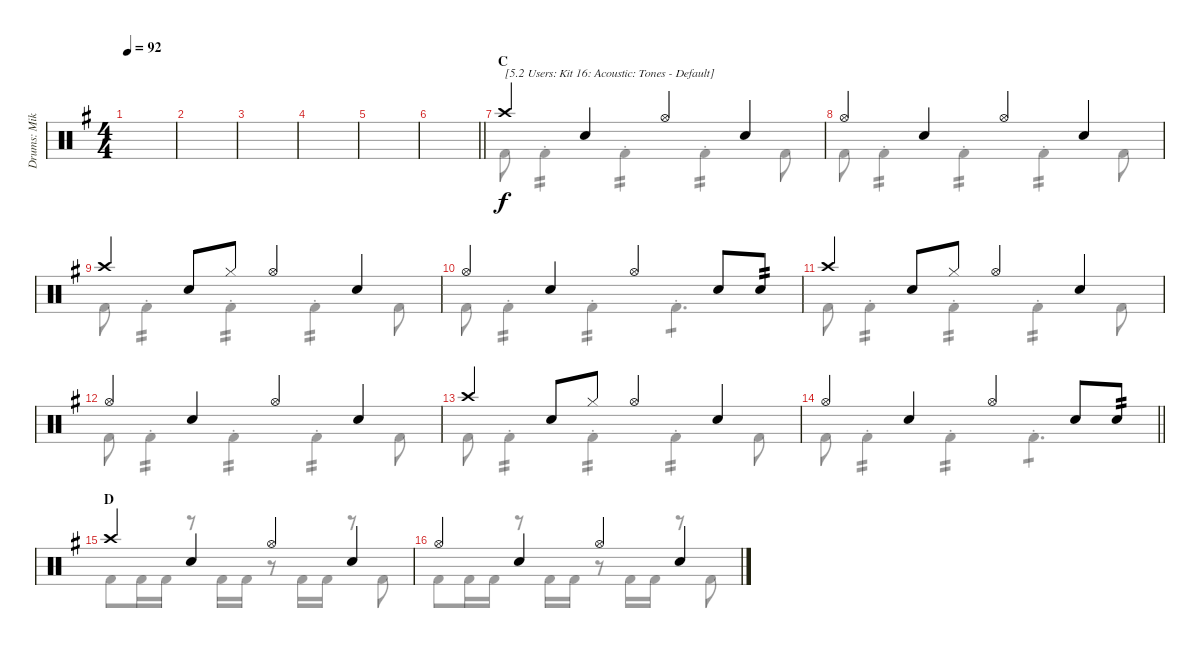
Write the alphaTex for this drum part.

\track ("Drums: Mike" "Drums: Mik") {instrument percussion}
\staff {score}
\articulation defaults
\voice
\ts (4 4)
\tempo 92
\clef neutral
\ks g
|
|
|
|
|
\barLineRight lightlight
|
\section ("" "C")
"Crash high (hit)".4{txt "[5.2 Users: Kit 16: Acoustic: Tones - Default]"} "Snare (hit) 2".4 "Hi-Hat (open)".4{beam merge} "Snare (hit) 2".4 |
"Hi-Hat (open)".4 "Snare (hit) 2".4 "Hi-Hat (open)".4{beam merge} "Snare (hit) 2".4 |
"Crash high (hit)".4 "Snare (hit) 2".8 "Hi-Hat (closed)".8 "Hi-Hat (open)".4{beam merge} "Snare (hit) 2".4 |
"Hi-Hat (open)".4 "Snare (hit) 2".4 "Hi-Hat (open)".4{beam merge} "Snare (hit) 2".8 "Electric Snare (hit)".8{tp 2} |
"Crash high (hit)".4 "Snare (hit) 2".8 "Hi-Hat (closed)".8 "Hi-Hat (open)".4{beam merge} "Snare (hit) 2".4 |
"Hi-Hat (open)".4 "Snare (hit) 2".4 "Hi-Hat (open)".4{beam merge} "Snare (hit) 2".4 |
"Crash high (hit)".4 "Snare (hit) 2".8 "Hi-Hat (closed)".8 "Hi-Hat (open)".4{beam merge} "Snare (hit) 2".4 |
\barLineRight lightlight "Hi-Hat (open)".4 "Snare (hit) 2".4 "Hi-Hat (open)".4{beam merge} "Snare (hit) 2".8 "Electric Snare (hit)".8{tp 2}
|
\section ("" "D")
"Crash high (hit)".4 "Snare (hit) 2".4 "Hi-Hat (open)".4{beam merge} "Snare (hit) 2".4 |
"Hi-Hat (open)".4 "Snare (hit) 2".4 "Hi-Hat (open)".4{beam merge} "Snare (hit) 2".4
\voice
\clef neutral
\ottava regular
\simile none
\ks g
|
|
|
|
|
\barLineRight lightlight
|
"Kick (hit) 2".8 "Kick (hit) 2"{st}.4{tp 2} "Kick (hit) 2"{st}.4{tp 2} "Kick (hit) 2"{st}.4{tp 2} "Kick (hit) 2".8 |
"Kick (hit) 2".8 "Kick (hit) 2"{st}.4{tp 2} "Kick (hit) 2"{st}.4{tp 2} "Kick (hit) 2"{st}.4{tp 2} "Kick (hit) 2".8 |
"Kick (hit) 2".8 "Kick (hit) 2"{st}.4{tp 2} "Kick (hit) 2"{st}.4{tp 2} "Kick (hit) 2"{st}.4{tp 2} "Kick (hit) 2".8 |
"Kick (hit) 2".8 "Kick (hit) 2"{st}.4{tp 2} "Kick (hit) 2"{st}.4{tp 2} "Kick (hit) 2"{st}.4{d tp 1} |
"Kick (hit) 2".8 "Kick (hit) 2"{st}.4{tp 2} "Kick (hit) 2"{st}.4{tp 2} "Kick (hit) 2"{st}.4{tp 2} "Kick (hit) 2".8 |
"Kick (hit) 2".8 "Kick (hit) 2"{st}.4{tp 2} "Kick (hit) 2"{st}.4{tp 2} "Kick (hit) 2"{st}.4{tp 2} "Kick (hit) 2".8 |
"Kick (hit) 2".8 "Kick (hit) 2"{st}.4{tp 2} "Kick (hit) 2"{st}.4{tp 2} "Kick (hit) 2"{st}.4{tp 2} "Kick (hit) 2".8 |
\barLineRight lightlight "Kick (hit) 2".8 "Kick (hit) 2"{st}.4{tp 2} "Kick (hit) 2"{st}.4{tp 2} "Kick (hit) 2"{st}.4{d tp 1}
|
"Kick (hit) 2".8 "Kick (hit) 2".16 "Kick (hit) 2".16 r.8 "Kick (hit) 2".16 "Kick (hit) 2".16 r.8 "Kick (hit) 2".16 "Kick (hit) 2".16 r.8 "Kick (hit) 2".8 |
"Kick (hit) 2".8 "Kick (hit) 2".16 "Kick (hit) 2".16 r.8 "Kick (hit) 2".16 "Kick (hit) 2".16 r.8 "Kick (hit) 2".16 "Kick (hit) 2".16 r.8 "Kick (hit) 2".8
